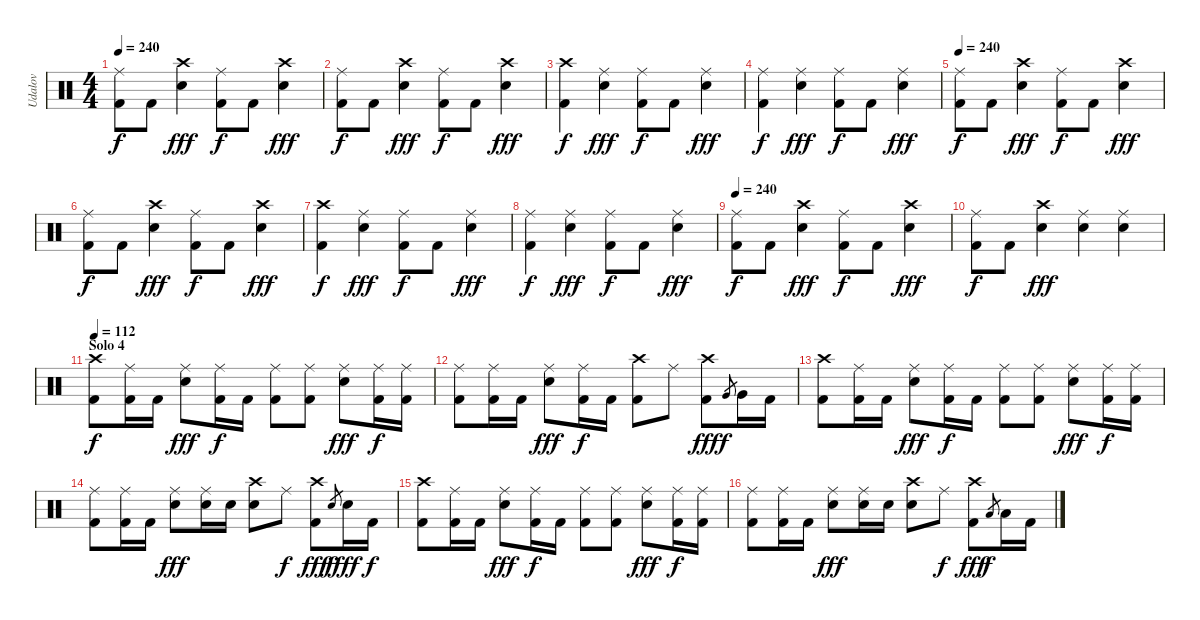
\track ("Udalov" "Udalov") {instrument percussion}
\staff {score}
\articulation defaults
\ts (4 4)
\tempo 240
\clef neutral
\ks c
("Ride (middle)" "Kick (hit) 2").8{dy f} "Kick (hit) 2".8 ("Crash high (hit)" "Electric Snare (hit)").4{dy fff} ("Ride (middle)" "Kick (hit) 2").8{dy f} "Kick (hit) 2".8 ("Crash high (hit)" "Electric Snare (hit)").4{dy fff} |
("Ride (middle)" "Kick (hit) 2").8{dy f} "Kick (hit) 2".8 ("Crash high (hit)" "Electric Snare (hit)").4{dy fff} ("Ride (middle)" "Kick (hit) 2").8{dy f} "Kick (hit) 2".8 ("Crash high (hit)" "Electric Snare (hit)").4{dy fff} |
("Crash high (hit)" "Kick (hit) 2").4{dy f} ("Ride (middle)" "Electric Snare (hit)").4{dy fff} ("Ride (middle)" "Kick (hit) 2").8{dy f} "Kick (hit) 2".8 ("Ride (middle)" "Electric Snare (hit)").4{dy fff} |
("Ride (middle)" "Kick (hit) 2").4{dy f} ("Ride (middle)" "Electric Snare (hit)").4{dy fff} ("Ride (middle)" "Kick (hit) 2").8{dy f} "Kick (hit) 2".8 ("Ride (middle)" "Electric Snare (hit)").4{dy fff} |
\tempo 240
("Ride (middle)" "Kick (hit) 2").8{dy f} "Kick (hit) 2".8 ("Crash high (hit)" "Electric Snare (hit)").4{dy fff} ("Ride (middle)" "Kick (hit) 2").8{dy f} "Kick (hit) 2".8 ("Crash high (hit)" "Electric Snare (hit)").4{dy fff} |
("Ride (middle)" "Kick (hit) 2").8{dy f} "Kick (hit) 2".8 ("Crash high (hit)" "Electric Snare (hit)").4{dy fff} ("Ride (middle)" "Kick (hit) 2").8{dy f} "Kick (hit) 2".8 ("Crash high (hit)" "Electric Snare (hit)").4{dy fff} |
("Crash high (hit)" "Kick (hit) 2").4{dy f} ("Ride (middle)" "Electric Snare (hit)").4{dy fff} ("Ride (middle)" "Kick (hit) 2").8{dy f} "Kick (hit) 2".8 ("Ride (middle)" "Electric Snare (hit)").4{dy fff} |
("Ride (middle)" "Kick (hit) 2").4{dy f} ("Ride (middle)" "Electric Snare (hit)").4{dy fff} ("Ride (middle)" "Kick (hit) 2").8{dy f} "Kick (hit) 2".8 ("Ride (middle)" "Electric Snare (hit)").4{dy fff} |
\tempo 240
("Ride (middle)" "Kick (hit) 2").8{dy f} "Kick (hit) 2".8 ("Crash high (hit)" "Electric Snare (hit)").4{dy fff} ("Ride (middle)" "Kick (hit) 2").8{dy f} "Kick (hit) 2".8 ("Crash high (hit)" "Electric Snare (hit)").4{dy fff} |
("Ride (middle)" "Kick (hit) 2").8{dy f} "Kick (hit) 2".8 ("Crash high (hit)" "Electric Snare (hit)").4{dy fff} ("Ride (middle)" "Electric Snare (hit)").4 ("Ride (middle)" "Electric Snare (hit)").4 |
\section ("" "Solo 4")
\tempo 112
("Crash high (hit)" "Kick (hit) 2").8{dy f} ("Ride (middle)" "Kick (hit) 2").16 "Kick (hit) 2".16 ("Ride (middle)" "Electric Snare (hit)").8{dy fff} ("Ride (middle)" "Kick (hit) 2").16{dy f} "Kick (hit) 2".16 ("Ride (middle)" "Kick (hit) 2").8 ("Ride (middle)" "Kick (hit) 2").8 ("Ride (middle)" "Electric Snare (hit)").8{dy fff} ("Ride (middle)" "Kick (hit) 2").16{dy f} ("Ride (middle)" "Kick (hit) 2").16 |
("Ride (middle)" "Kick (hit) 2").8 ("Ride (middle)" "Kick (hit) 2").16 "Kick (hit) 2".16 ("Ride (middle)" "Electric Snare (hit)").8{dy fff} ("Ride (middle)" "Kick (hit) 2").16{dy f} "Kick (hit) 2".16 ("Crash high (hit)" "Kick (hit) 2").8 "Ride (middle)".8 ("Crash high (hit)" "Kick (hit) 2").8{dy fff} "Very Low Tom (hit)".8{gr dy f} "Very Low Tom (hit)".16 "Kick (hit) 2".16 |
("Crash high (hit)" "Kick (hit) 2").8 ("Ride (middle)" "Kick (hit) 2").16 "Kick (hit) 2".16 ("Ride (middle)" "Electric Snare (hit)").8{dy fff} ("Ride (middle)" "Kick (hit) 2").16{dy f} "Kick (hit) 2".16 ("Ride (middle)" "Kick (hit) 2").8 ("Ride (middle)" "Kick (hit) 2").8 ("Ride (middle)" "Electric Snare (hit)").8{dy fff} ("Ride (middle)" "Kick (hit) 2").16{dy f} ("Ride (middle)" "Kick (hit) 2").16 |
("Ride (middle)" "Kick (hit) 2").8 ("Ride (middle)" "Kick (hit) 2").16 "Kick (hit) 2".16 ("Ride (middle)" "Electric Snare (hit)").8{dy fff} ("Ride (middle)" "Electric Snare (hit)").16 "Electric Snare (hit)".16 ("Crash high (hit)" "Electric Snare (hit)").8 "Ride (middle)".8{dy f} ("Crash high (hit)" "Kick (hit) 2").8{dy fff} "Electric Snare (hit)".8{gr dy f} "Electric Snare (hit)".16{dy fff} "Kick (hit) 2".16{dy f} |
("Crash high (hit)" "Kick (hit) 2").8 ("Ride (middle)" "Kick (hit) 2").16 "Kick (hit) 2".16 ("Ride (middle)" "Electric Snare (hit)").8{dy fff} ("Ride (middle)" "Kick (hit) 2").16{dy f} "Kick (hit) 2".16 ("Ride (middle)" "Kick (hit) 2").8 ("Ride (middle)" "Kick (hit) 2").8 ("Ride (middle)" "Electric Snare (hit)").8{dy fff} ("Ride (middle)" "Kick (hit) 2").16{dy f} ("Ride (middle)" "Kick (hit) 2").16 |
("Ride (middle)" "Kick (hit) 2").8 ("Ride (middle)" "Kick (hit) 2").16 "Kick (hit) 2".16 ("Ride (middle)" "Electric Snare (hit)").8{dy fff} ("Ride (middle)" "Electric Snare (hit)").16 "Electric Snare (hit)".16 ("Crash high (hit)" "Electric Snare (hit)").8 "Ride (middle)".8{dy f} ("Crash high (hit)" "Kick (hit) 2").8{dy fff} "Low Tom (hit)".8{gr dy f} "Low Tom (hit)".16 "Kick (hit) 2".16
